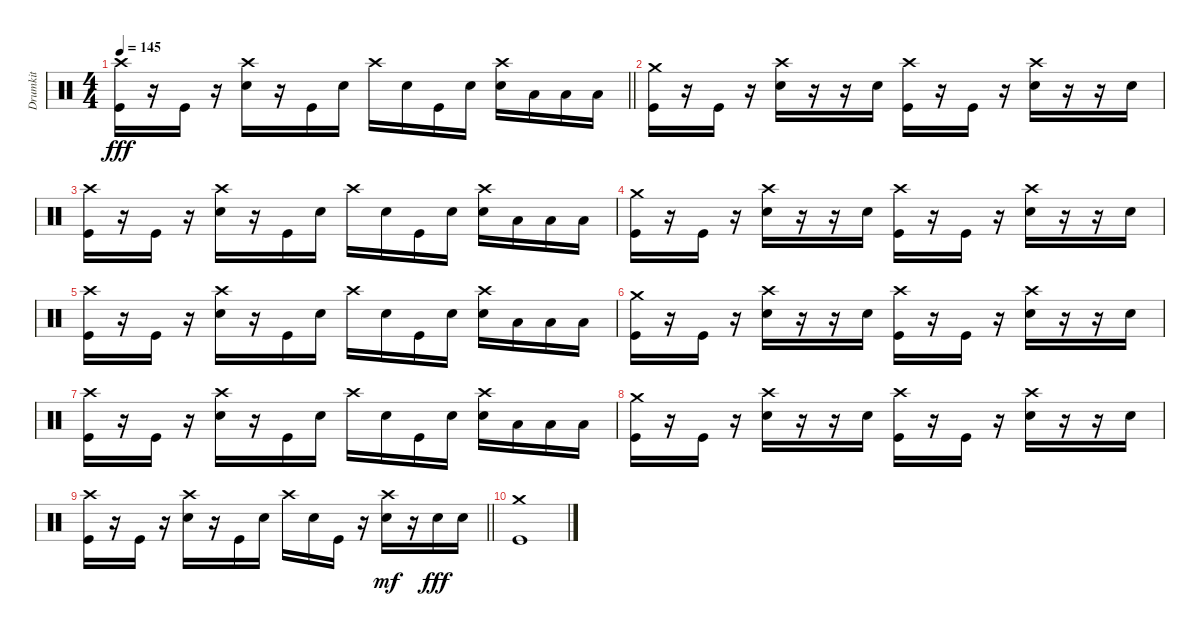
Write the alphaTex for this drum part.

\track ("Drumkit" "Drumkit") {instrument percussion}
\staff {score}
\articulation defaults
\ts (4 4)
\tempo 145
\clef neutral
\barLineRight lightlight
\ks c
("Crash high (hit)" "Kick (hit)").16{dy fff} r.16 "Kick (hit)".16 r.16 ("Crash high (hit)" "Snare (hit) 2").16 r.16 "Kick (hit)".16 "Snare (hit) 2".16 "Crash high (hit)".16 "Snare (hit) 2".16 "Kick (hit)".16 "Snare (hit) 2".16 ("Crash high (hit)" "Snare (hit) 2").16 "Low Tom (hit)".16 "Low Tom (hit)".16 "Low Floor Tom (hit)".16 |
("Crash medium (hit)" "Kick (hit)").16 r.16 "Kick (hit)".16 r.16 ("Crash high (hit)" "Snare (hit) 2").16 r.16 r.16 "Snare (hit) 2".16 ("Crash high (hit)" "Kick (hit)").16 r.16 "Kick (hit)".16 r.16 ("Crash high (hit)" "Snare (hit) 2").16 r.16 r.16 "Snare (hit) 2".16 |
("Crash high (hit)" "Kick (hit)").16 r.16 "Kick (hit)".16 r.16 ("Crash high (hit)" "Snare (hit) 2").16 r.16 "Kick (hit)".16 "Snare (hit) 2".16 "Crash high (hit)".16 "Snare (hit) 2".16 "Kick (hit)".16 "Snare (hit) 2".16 ("Crash high (hit)" "Snare (hit) 2").16 "Low Tom (hit)".16 "Low Tom (hit)".16 "Low Floor Tom (hit)".16 |
("Crash medium (hit)" "Kick (hit)").16 r.16 "Kick (hit)".16 r.16 ("Crash high (hit)" "Snare (hit) 2").16 r.16 r.16 "Snare (hit) 2".16 ("Crash high (hit)" "Kick (hit)").16 r.16 "Kick (hit)".16 r.16 ("Crash high (hit)" "Snare (hit) 2").16 r.16 r.16 "Snare (hit) 2".16 |
("Crash high (hit)" "Kick (hit)").16 r.16 "Kick (hit)".16 r.16 ("Crash high (hit)" "Snare (hit) 2").16 r.16 "Kick (hit)".16 "Snare (hit) 2".16 "Crash high (hit)".16 "Snare (hit) 2".16 "Kick (hit)".16 "Snare (hit) 2".16 ("Crash high (hit)" "Snare (hit) 2").16 "Low Tom (hit)".16 "Low Tom (hit)".16 "Low Floor Tom (hit)".16 |
("Crash medium (hit)" "Kick (hit)").16 r.16 "Kick (hit)".16 r.16 ("Crash high (hit)" "Snare (hit) 2").16 r.16 r.16 "Snare (hit) 2".16 ("Crash high (hit)" "Kick (hit)").16 r.16 "Kick (hit)".16 r.16 ("Crash high (hit)" "Snare (hit) 2").16 r.16 r.16 "Snare (hit) 2".16 |
("Crash high (hit)" "Kick (hit)").16 r.16 "Kick (hit)".16 r.16 ("Crash high (hit)" "Snare (hit) 2").16 r.16 "Kick (hit)".16 "Snare (hit) 2".16 "Crash high (hit)".16 "Snare (hit) 2".16 "Kick (hit)".16 "Snare (hit) 2".16 ("Crash high (hit)" "Snare (hit) 2").16 "Low Tom (hit)".16 "Low Tom (hit)".16 "Low Floor Tom (hit)".16 |
("Crash medium (hit)" "Kick (hit)").16 r.16 "Kick (hit)".16 r.16 ("Crash high (hit)" "Snare (hit) 2").16 r.16 r.16 "Snare (hit) 2".16 ("Crash high (hit)" "Kick (hit)").16 r.16 "Kick (hit)".16 r.16 ("Crash high (hit)" "Snare (hit) 2").16 r.16 r.16 "Snare (hit) 2".16 |
\barLineRight lightlight
("Crash high (hit)" "Kick (hit)").16 r.16 "Kick (hit)".16 r.16 ("Crash high (hit)" "Snare (hit) 2").16 r.16 "Kick (hit)".16 "Snare (hit) 2".16 "Crash high (hit)".16 "Snare (hit) 2".16 "Kick (hit)".16 r.16 ("Crash high (hit)" "Snare (hit) 2").16{dy mf} r.16 "Snare (hit) 2".16{dy fff} "Snare (hit) 2".16 |
("Crash medium (hit)" "Kick (hit)").1
